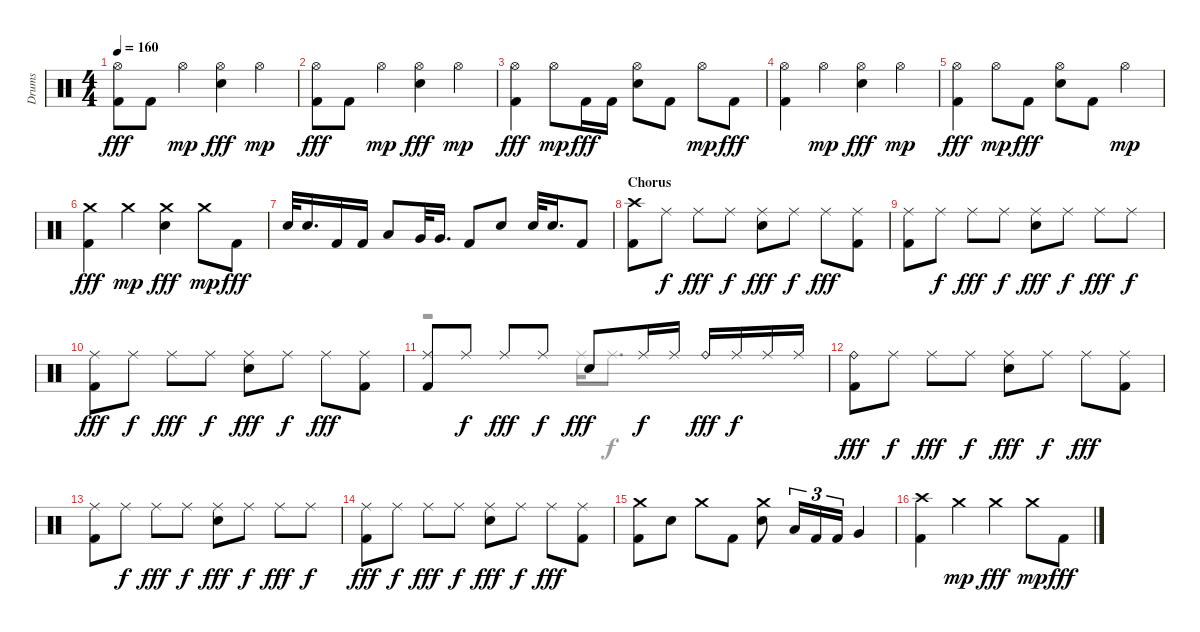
\track ("Drums" "Drums") {instrument percussion}
\staff {score}
\articulation defaults
\voice
\ts (4 4)
\tempo 160
\clef neutral
\ks aminor
("Kick (hit) 2" "Hi-Hat (open)").8{dy fff} "Kick (hit) 2".8 "Hi-Hat (open)".4{dy mp} ("Hi-Hat (open)" "Snare (hit) 2").4{dy fff} "Hi-Hat (open)".4{dy mp} |
("Kick (hit) 2" "Hi-Hat (open)").8{dy fff} "Kick (hit) 2".8 "Hi-Hat (open)".4{dy mp} ("Snare (hit) 2" "Hi-Hat (open)").4{dy fff} "Hi-Hat (open)".4{dy mp} |
("Kick (hit) 2" "Hi-Hat (open)").4{dy fff} "Hi-Hat (open)".8{dy mp} "Kick (hit) 2".16{dy fff} "Kick (hit) 2".16 ("Hi-Hat (open)" "Snare (hit) 2").8 "Kick (hit) 2".8 "Hi-Hat (open)".8{dy mp} "Kick (hit) 2".8{dy fff} |
("Kick (hit) 2" "Hi-Hat (open)").4 "Hi-Hat (open)".4{dy mp} ("Hi-Hat (open)" "Snare (hit) 2").4{dy fff} "Hi-Hat (open)".4{dy mp} |
("Kick (hit) 2" "Hi-Hat (open)").4{dy fff} "Hi-Hat (open)".8{dy mp} "Kick (hit) 2".8{dy fff} ("Snare (hit) 2" "Hi-Hat (open)").8 "Kick (hit) 2".8 "Hi-Hat (open)".4{dy mp} |
("Crash medium (hit)" "Kick (hit) 2").4{dy fff} "Crash medium (hit)".4{dy mp} ("Snare (hit) 2" "Crash medium (hit)").4{dy fff} "Crash medium (hit)".8{dy mp} "Kick (hit) 2".8{dy fff} |
"Snare (hit) 2".32 "Snare (hit) 2".16{d} "Kick (hit) 2".16 "Kick (hit) 2".16 "Low Tom (hit)".8 "Very Low Tom (hit)".32 "Very Low Tom (hit)".16{d} "Kick (hit) 2".8 "Snare (hit) 2".8 "Snare (hit) 2".32 "Snare (hit) 2".16{d} "Kick (hit) 2".8 |
\section ("" "Chorus")
("Kick (hit) 2" "Crash high (hit)").8 "Ride (middle)".8{dy f} "Ride (middle)".8{dy fff} "Ride (middle)".8{dy f} ("Snare (hit) 2" "Ride (middle)").8{dy fff} "Ride (middle)".8{dy f} "Ride (middle)".8{dy fff} ("Kick (hit) 2" "Ride (middle)").8 |
("Ride (middle)" "Kick (hit) 2").8 "Ride (middle)".8{dy f} "Ride (middle)".8{dy fff} "Ride (middle)".8{dy f} ("Snare (hit) 2" "Ride (middle)").8{dy fff} "Ride (middle)".8{dy f} "Ride (middle)".8{dy fff} "Ride (middle)".8{dy f} |
("Kick (hit) 2" "Ride (middle)").8{dy fff} "Ride (middle)".8{dy f} "Ride (middle)".8{dy fff} "Ride (middle)".8{dy f} ("Snare (hit) 2" "Ride (middle)").8{dy fff} "Ride (middle)".8{dy f} "Ride (middle)".8{dy fff} ("Ride (middle)" "Kick (hit) 2").8 |
("Kick (hit) 2" "Ride (middle)").8 "Ride (middle)".8{dy f} "Ride (middle)".8{dy fff} "Ride (middle)".8{dy f} "Snare (hit) 2".8{dy fff} "Ride (middle)".16{dy f} "Ride (middle)".16 "Ride (bell)".16{dy fff} "Ride (middle)".16{dy f} "Ride (middle)".16 "Ride (middle)".16 |
("Ride (bell)" "Kick (hit) 2").8{dy fff} "Ride (middle)".8{dy f} "Ride (middle)".8{dy fff} "Ride (middle)".8{dy f} ("Ride (middle)" "Snare (hit) 2").8{dy fff} "Ride (middle)".8{dy f} "Ride (middle)".8{dy fff} ("Ride (middle)" "Kick (hit) 2").8 |
("Kick (hit) 2" "Ride (middle)").8 "Ride (middle)".8{dy f} "Ride (middle)".8{dy fff} "Ride (middle)".8{dy f} ("Snare (hit) 2" "Ride (middle)").8{dy fff} "Ride (middle)".8{dy f} "Ride (middle)".8{dy fff} "Ride (middle)".8{dy f} |
("Ride (middle)" "Kick (hit) 2").8{dy fff} "Ride (middle)".8{dy f} "Ride (middle)".8{dy fff} "Ride (middle)".8{dy f} ("Snare (hit) 2" "Ride (middle)").8{dy fff} "Ride (middle)".8{dy f} "Ride (middle)".8{dy fff} ("Ride (middle)" "Kick (hit) 2").8 |
("Crash medium (hit)" "Kick (hit) 2").8 "Snare (hit) 2".8 "Crash medium (hit)".8 "Kick (hit) 2".8 ("Snare (hit) 2" "Crash medium (hit)").8 "Low Tom (hit)".16{tu (3 2)} "Kick (hit) 2".16{tu (3 2)} "Kick (hit) 2".16{tu (3 2)} "Very Low Tom (hit)".4 |
("Crash high (hit)" "Kick (hit) 2").4 "Crash medium (hit)".4{dy mp} "Crash medium (hit)".4{dy fff} "Crash medium (hit)".8{dy mp} "Kick (hit) 2".8{dy fff}
\voice
\clef neutral
\ottava regular
\simile none
\ks aminor
|
|
|
|
|
|
|
|
|
|
r.2 "Ride (middle)".16 "Ride (middle)".8{d dy f} |
|
|
|
|
